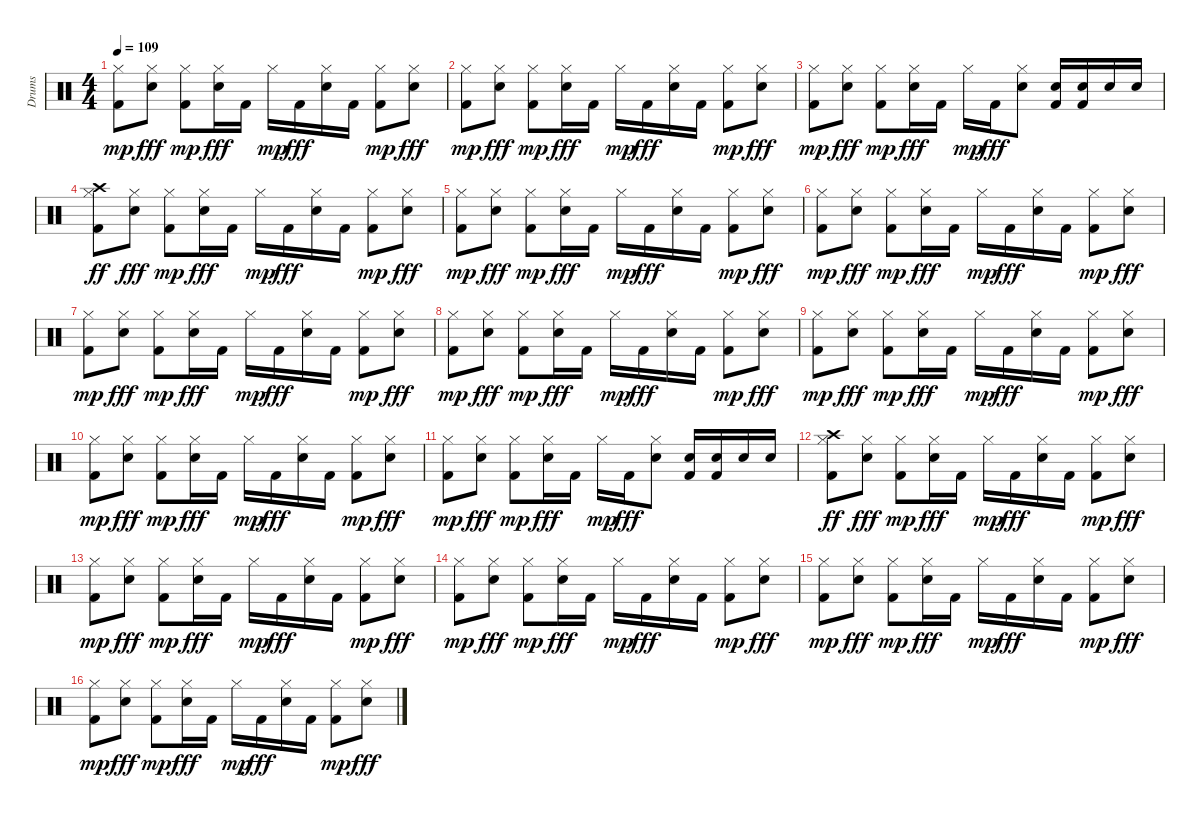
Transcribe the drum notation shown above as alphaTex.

\track ("Drums" "Drums") {instrument percussion}
\staff {score}
\articulation defaults
\ts (4 4)
\tempo 109
\clef neutral
\ks c
("Kick (hit) 2" "Hi-Hat (closed)").8{dy mp} ("Snare (hit) 2" "Hi-Hat (closed)").8{dy fff} ("Kick (hit) 2" "Hi-Hat (closed)").8{dy mp} ("Snare (hit) 2" "Hi-Hat (closed)").16{dy fff} "Kick (hit) 2".16 "Hi-Hat (closed)".16{dy mp} "Kick (hit) 2".16{dy fff} ("Snare (hit) 2" "Hi-Hat (closed)").16 "Kick (hit) 2".16 ("Kick (hit) 2" "Hi-Hat (closed)").8{dy mp} ("Snare (hit) 2" "Hi-Hat (closed)").8{dy fff} |
("Kick (hit) 2" "Hi-Hat (closed)").8{dy mp} ("Snare (hit) 2" "Hi-Hat (closed)").8{dy fff} ("Kick (hit) 2" "Hi-Hat (closed)").8{dy mp} ("Snare (hit) 2" "Hi-Hat (closed)").16{dy fff} "Kick (hit) 2".16 "Hi-Hat (closed)".16{dy mp} "Kick (hit) 2".16{dy fff} ("Snare (hit) 2" "Hi-Hat (closed)").16 "Kick (hit) 2".16 ("Kick (hit) 2" "Hi-Hat (closed)").8{dy mp} ("Snare (hit) 2" "Hi-Hat (closed)").8{dy fff} |
("Kick (hit) 2" "Hi-Hat (closed)").8{dy mp} ("Snare (hit) 2" "Hi-Hat (closed)").8{dy fff} ("Kick (hit) 2" "Hi-Hat (closed)").8{dy mp} ("Snare (hit) 2" "Hi-Hat (closed)").16{dy fff} "Kick (hit) 2".16 "Hi-Hat (closed)".16{dy mp} "Kick (hit) 2".16{dy fff} ("Snare (hit) 2" "Hi-Hat (closed)").8 ("Snare (hit) 2" "Kick (hit) 2").16 ("Snare (hit) 2" "Kick (hit) 2").16 "Snare (hit) 2".16 "Snare (hit) 2".16 |
("Kick (hit) 2" "Hi-Hat (closed)" "Crash high (hit)").8{dy ff} ("Snare (hit) 2" "Hi-Hat (closed)").8{dy fff} ("Kick (hit) 2" "Hi-Hat (closed)").8{dy mp} ("Snare (hit) 2" "Hi-Hat (closed)").16{dy fff} "Kick (hit) 2".16 "Hi-Hat (closed)".16{dy mp} "Kick (hit) 2".16{dy fff} ("Snare (hit) 2" "Hi-Hat (closed)").16 "Kick (hit) 2".16 ("Kick (hit) 2" "Hi-Hat (closed)").8{dy mp} ("Snare (hit) 2" "Hi-Hat (closed)").8{dy fff} |
("Kick (hit) 2" "Hi-Hat (closed)").8{dy mp} ("Snare (hit) 2" "Hi-Hat (closed)").8{dy fff} ("Kick (hit) 2" "Hi-Hat (closed)").8{dy mp} ("Snare (hit) 2" "Hi-Hat (closed)").16{dy fff} "Kick (hit) 2".16 "Hi-Hat (closed)".16{dy mp} "Kick (hit) 2".16{dy fff} ("Snare (hit) 2" "Hi-Hat (closed)").16 "Kick (hit) 2".16 ("Kick (hit) 2" "Hi-Hat (closed)").8{dy mp} ("Snare (hit) 2" "Hi-Hat (closed)").8{dy fff} |
("Kick (hit) 2" "Hi-Hat (closed)").8{dy mp} ("Snare (hit) 2" "Hi-Hat (closed)").8{dy fff} ("Kick (hit) 2" "Hi-Hat (closed)").8{dy mp} ("Snare (hit) 2" "Hi-Hat (closed)").16{dy fff} "Kick (hit) 2".16 "Hi-Hat (closed)".16{dy mp} "Kick (hit) 2".16{dy fff} ("Snare (hit) 2" "Hi-Hat (closed)").16 "Kick (hit) 2".16 ("Kick (hit) 2" "Hi-Hat (closed)").8{dy mp} ("Snare (hit) 2" "Hi-Hat (closed)").8{dy fff} |
("Kick (hit) 2" "Hi-Hat (closed)").8{dy mp} ("Snare (hit) 2" "Hi-Hat (closed)").8{dy fff} ("Kick (hit) 2" "Hi-Hat (closed)").8{dy mp} ("Snare (hit) 2" "Hi-Hat (closed)").16{dy fff} "Kick (hit) 2".16 "Hi-Hat (closed)".16{dy mp} "Kick (hit) 2".16{dy fff} ("Snare (hit) 2" "Hi-Hat (closed)").16 "Kick (hit) 2".16 ("Kick (hit) 2" "Hi-Hat (closed)").8{dy mp} ("Snare (hit) 2" "Hi-Hat (closed)").8{dy fff} |
("Kick (hit) 2" "Hi-Hat (closed)").8{dy mp} ("Snare (hit) 2" "Hi-Hat (closed)").8{dy fff} ("Kick (hit) 2" "Hi-Hat (closed)").8{dy mp} ("Snare (hit) 2" "Hi-Hat (closed)").16{dy fff} "Kick (hit) 2".16 "Hi-Hat (closed)".16{dy mp} "Kick (hit) 2".16{dy fff} ("Snare (hit) 2" "Hi-Hat (closed)").16 "Kick (hit) 2".16 ("Kick (hit) 2" "Hi-Hat (closed)").8{dy mp} ("Snare (hit) 2" "Hi-Hat (closed)").8{dy fff} |
("Kick (hit) 2" "Hi-Hat (closed)").8{dy mp} ("Snare (hit) 2" "Hi-Hat (closed)").8{dy fff} ("Kick (hit) 2" "Hi-Hat (closed)").8{dy mp} ("Snare (hit) 2" "Hi-Hat (closed)").16{dy fff} "Kick (hit) 2".16 "Hi-Hat (closed)".16{dy mp} "Kick (hit) 2".16{dy fff} ("Snare (hit) 2" "Hi-Hat (closed)").16 "Kick (hit) 2".16 ("Kick (hit) 2" "Hi-Hat (closed)").8{dy mp} ("Snare (hit) 2" "Hi-Hat (closed)").8{dy fff} |
("Kick (hit) 2" "Hi-Hat (closed)").8{dy mp} ("Snare (hit) 2" "Hi-Hat (closed)").8{dy fff} ("Kick (hit) 2" "Hi-Hat (closed)").8{dy mp} ("Snare (hit) 2" "Hi-Hat (closed)").16{dy fff} "Kick (hit) 2".16 "Hi-Hat (closed)".16{dy mp} "Kick (hit) 2".16{dy fff} ("Snare (hit) 2" "Hi-Hat (closed)").16 "Kick (hit) 2".16 ("Kick (hit) 2" "Hi-Hat (closed)").8{dy mp} ("Snare (hit) 2" "Hi-Hat (closed)").8{dy fff} |
("Kick (hit) 2" "Hi-Hat (closed)").8{dy mp} ("Snare (hit) 2" "Hi-Hat (closed)").8{dy fff} ("Kick (hit) 2" "Hi-Hat (closed)").8{dy mp} ("Snare (hit) 2" "Hi-Hat (closed)").16{dy fff} "Kick (hit) 2".16 "Hi-Hat (closed)".16{dy mp} "Kick (hit) 2".16{dy fff} ("Snare (hit) 2" "Hi-Hat (closed)").8 ("Snare (hit) 2" "Kick (hit) 2").16 ("Snare (hit) 2" "Kick (hit) 2").16 "Snare (hit) 2".16 "Snare (hit) 2".16 |
("Kick (hit) 2" "Hi-Hat (closed)" "Crash high (hit)").8{dy ff} ("Snare (hit) 2" "Hi-Hat (closed)").8{dy fff} ("Kick (hit) 2" "Hi-Hat (closed)").8{dy mp} ("Snare (hit) 2" "Hi-Hat (closed)").16{dy fff} "Kick (hit) 2".16 "Hi-Hat (closed)".16{dy mp} "Kick (hit) 2".16{dy fff} ("Snare (hit) 2" "Hi-Hat (closed)").16 "Kick (hit) 2".16 ("Kick (hit) 2" "Hi-Hat (closed)").8{dy mp} ("Snare (hit) 2" "Hi-Hat (closed)").8{dy fff} |
("Kick (hit) 2" "Hi-Hat (closed)").8{dy mp} ("Snare (hit) 2" "Hi-Hat (closed)").8{dy fff} ("Kick (hit) 2" "Hi-Hat (closed)").8{dy mp} ("Snare (hit) 2" "Hi-Hat (closed)").16{dy fff} "Kick (hit) 2".16 "Hi-Hat (closed)".16{dy mp} "Kick (hit) 2".16{dy fff} ("Snare (hit) 2" "Hi-Hat (closed)").16 "Kick (hit) 2".16 ("Kick (hit) 2" "Hi-Hat (closed)").8{dy mp} ("Snare (hit) 2" "Hi-Hat (closed)").8{dy fff} |
("Kick (hit) 2" "Hi-Hat (closed)").8{dy mp} ("Snare (hit) 2" "Hi-Hat (closed)").8{dy fff} ("Kick (hit) 2" "Hi-Hat (closed)").8{dy mp} ("Snare (hit) 2" "Hi-Hat (closed)").16{dy fff} "Kick (hit) 2".16 "Hi-Hat (closed)".16{dy mp} "Kick (hit) 2".16{dy fff} ("Snare (hit) 2" "Hi-Hat (closed)").16 "Kick (hit) 2".16 ("Kick (hit) 2" "Hi-Hat (closed)").8{dy mp} ("Snare (hit) 2" "Hi-Hat (closed)").8{dy fff} |
("Kick (hit) 2" "Hi-Hat (closed)").8{dy mp} ("Snare (hit) 2" "Hi-Hat (closed)").8{dy fff} ("Kick (hit) 2" "Hi-Hat (closed)").8{dy mp} ("Snare (hit) 2" "Hi-Hat (closed)").16{dy fff} "Kick (hit) 2".16 "Hi-Hat (closed)".16{dy mp} "Kick (hit) 2".16{dy fff} ("Snare (hit) 2" "Hi-Hat (closed)").16 "Kick (hit) 2".16 ("Kick (hit) 2" "Hi-Hat (closed)").8{dy mp} ("Snare (hit) 2" "Hi-Hat (closed)").8{dy fff} |
("Kick (hit) 2" "Hi-Hat (closed)").8{dy mp} ("Snare (hit) 2" "Hi-Hat (closed)").8{dy fff} ("Kick (hit) 2" "Hi-Hat (closed)").8{dy mp} ("Snare (hit) 2" "Hi-Hat (closed)").16{dy fff} "Kick (hit) 2".16 "Hi-Hat (closed)".16{dy mp} "Kick (hit) 2".16{dy fff} ("Snare (hit) 2" "Hi-Hat (closed)").16 "Kick (hit) 2".16 ("Kick (hit) 2" "Hi-Hat (closed)").8{dy mp} ("Snare (hit) 2" "Hi-Hat (closed)").8{dy fff}
